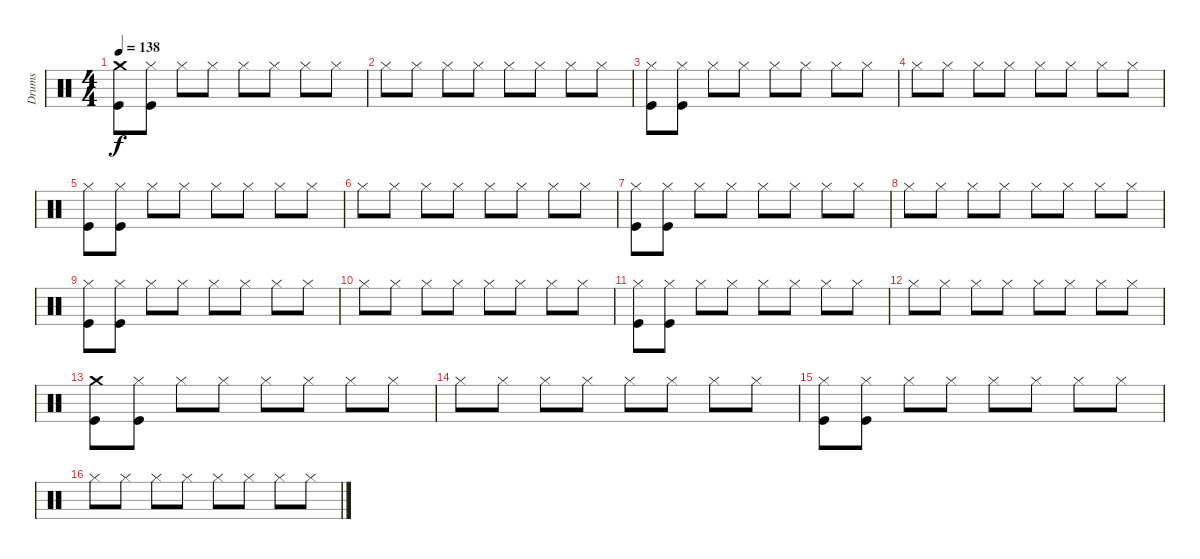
\track ("Drums" "Drums") {instrument percussion}
\staff {score}
\articulation defaults
\ts (4 4)
\tempo 138
\clef neutral
\ks c
("Crash medium (hit)" "Kick (hit)").8{dy f} ("Hi-Hat (closed)" "Kick (hit)").8 "Hi-Hat (closed)".8 "Hi-Hat (closed)".8 "Hi-Hat (closed)".8 "Hi-Hat (closed)".8 "Hi-Hat (closed)".8 "Hi-Hat (closed)".8 |
"Hi-Hat (closed)".8 "Hi-Hat (closed)".8 "Hi-Hat (closed)".8 "Hi-Hat (closed)".8 "Hi-Hat (closed)".8 "Hi-Hat (closed)".8 "Hi-Hat (closed)".8 "Hi-Hat (closed)".8 |
("Hi-Hat (closed)" "Kick (hit)").8 ("Hi-Hat (closed)" "Kick (hit)").8 "Hi-Hat (closed)".8 "Hi-Hat (closed)".8 "Hi-Hat (closed)".8 "Hi-Hat (closed)".8 "Hi-Hat (closed)".8 "Hi-Hat (closed)".8 |
"Hi-Hat (closed)".8 "Hi-Hat (closed)".8 "Hi-Hat (closed)".8 "Hi-Hat (closed)".8 "Hi-Hat (closed)".8 "Hi-Hat (closed)".8 "Hi-Hat (closed)".8 "Hi-Hat (closed)".8 |
("Hi-Hat (closed)" "Kick (hit)").8 ("Hi-Hat (closed)" "Kick (hit)").8 "Hi-Hat (closed)".8 "Hi-Hat (closed)".8 "Hi-Hat (closed)".8 "Hi-Hat (closed)".8 "Hi-Hat (closed)".8 "Hi-Hat (closed)".8 |
"Hi-Hat (closed)".8 "Hi-Hat (closed)".8 "Hi-Hat (closed)".8 "Hi-Hat (closed)".8 "Hi-Hat (closed)".8 "Hi-Hat (closed)".8 "Hi-Hat (closed)".8 "Hi-Hat (closed)".8 |
("Hi-Hat (closed)" "Kick (hit)").8 ("Hi-Hat (closed)" "Kick (hit)").8 "Hi-Hat (closed)".8 "Hi-Hat (closed)".8 "Hi-Hat (closed)".8 "Hi-Hat (closed)".8 "Hi-Hat (closed)".8 "Hi-Hat (closed)".8 |
"Hi-Hat (closed)".8 "Hi-Hat (closed)".8 "Hi-Hat (closed)".8 "Hi-Hat (closed)".8 "Hi-Hat (closed)".8 "Hi-Hat (closed)".8 "Hi-Hat (closed)".8 "Hi-Hat (closed)".8 |
("Hi-Hat (closed)" "Kick (hit)").8 ("Hi-Hat (closed)" "Kick (hit)").8 "Hi-Hat (closed)".8 "Hi-Hat (closed)".8 "Hi-Hat (closed)".8 "Hi-Hat (closed)".8 "Hi-Hat (closed)".8 "Hi-Hat (closed)".8 |
"Hi-Hat (closed)".8 "Hi-Hat (closed)".8 "Hi-Hat (closed)".8 "Hi-Hat (closed)".8 "Hi-Hat (closed)".8 "Hi-Hat (closed)".8 "Hi-Hat (closed)".8 "Hi-Hat (closed)".8 |
("Hi-Hat (closed)" "Kick (hit)").8 ("Hi-Hat (closed)" "Kick (hit)").8 "Hi-Hat (closed)".8 "Hi-Hat (closed)".8 "Hi-Hat (closed)".8 "Hi-Hat (closed)".8 "Hi-Hat (closed)".8 "Hi-Hat (closed)".8 |
"Hi-Hat (closed)".8 "Hi-Hat (closed)".8 "Hi-Hat (closed)".8 "Hi-Hat (closed)".8 "Hi-Hat (closed)".8 "Hi-Hat (closed)".8 "Hi-Hat (closed)".8 "Hi-Hat (closed)".8 |
("Crash medium (hit)" "Kick (hit)").8 ("Hi-Hat (closed)" "Kick (hit)").8 "Hi-Hat (closed)".8 "Hi-Hat (closed)".8 "Hi-Hat (closed)".8 "Hi-Hat (closed)".8 "Hi-Hat (closed)".8 "Hi-Hat (closed)".8 |
"Hi-Hat (closed)".8 "Hi-Hat (closed)".8 "Hi-Hat (closed)".8 "Hi-Hat (closed)".8 "Hi-Hat (closed)".8 "Hi-Hat (closed)".8 "Hi-Hat (closed)".8 "Hi-Hat (closed)".8 |
("Hi-Hat (closed)" "Kick (hit)").8 ("Hi-Hat (closed)" "Kick (hit)").8 "Hi-Hat (closed)".8 "Hi-Hat (closed)".8 "Hi-Hat (closed)".8 "Hi-Hat (closed)".8 "Hi-Hat (closed)".8 "Hi-Hat (closed)".8 |
"Hi-Hat (closed)".8 "Hi-Hat (closed)".8 "Hi-Hat (closed)".8 "Hi-Hat (closed)".8 "Hi-Hat (closed)".8 "Hi-Hat (closed)".8 "Hi-Hat (closed)".8 "Hi-Hat (closed)".8
